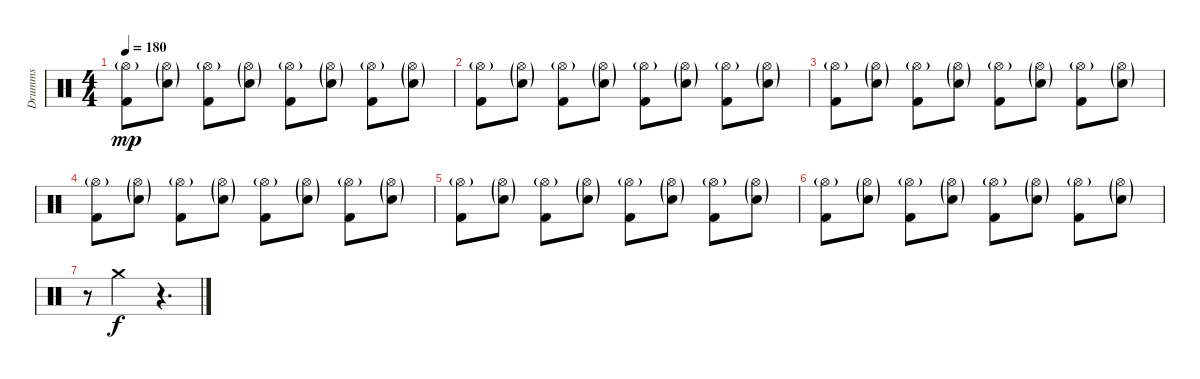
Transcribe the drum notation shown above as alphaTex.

\track ("Drumms" "Drumms") {instrument percussion}
\staff {score}
\articulation defaults
\ts (4 4)
\tempo 180
\clef neutral
\ks c
("Hi-Hat (open)"{g} "Kick (hit) 2").8{dy mp} ("Hi-Hat (open)"{g} "Snare (hit) 2"{g}).8 ("Hi-Hat (open)"{g} "Kick (hit) 2").8 ("Hi-Hat (open)"{g} "Snare (hit) 2"{g}).8 ("Hi-Hat (open)"{g} "Kick (hit) 2").8 ("Hi-Hat (open)"{g} "Snare (hit) 2"{g}).8 ("Hi-Hat (open)"{g} "Kick (hit) 2").8 ("Hi-Hat (open)"{g} "Snare (hit) 2"{g}).8 |
("Hi-Hat (open)"{g} "Kick (hit) 2").8 ("Hi-Hat (open)"{g} "Snare (hit) 2"{g}).8 ("Hi-Hat (open)"{g} "Kick (hit) 2").8 ("Hi-Hat (open)"{g} "Snare (hit) 2"{g}).8 ("Hi-Hat (open)"{g} "Kick (hit) 2").8 ("Hi-Hat (open)"{g} "Snare (hit) 2"{g}).8 ("Hi-Hat (open)"{g} "Kick (hit) 2").8 ("Hi-Hat (open)"{g} "Snare (hit) 2"{g}).8 |
("Hi-Hat (open)"{g} "Kick (hit) 2").8 ("Hi-Hat (open)"{g} "Snare (hit) 2"{g}).8 ("Hi-Hat (open)"{g} "Kick (hit) 2").8 ("Hi-Hat (open)"{g} "Snare (hit) 2"{g}).8 ("Hi-Hat (open)"{g} "Kick (hit) 2").8 ("Hi-Hat (open)"{g} "Snare (hit) 2"{g}).8 ("Hi-Hat (open)"{g} "Kick (hit) 2").8 ("Hi-Hat (open)"{g} "Snare (hit) 2"{g}).8 |
("Hi-Hat (open)"{g} "Kick (hit) 2").8 ("Hi-Hat (open)"{g} "Snare (hit) 2"{g}).8 ("Hi-Hat (open)"{g} "Kick (hit) 2").8 ("Hi-Hat (open)"{g} "Snare (hit) 2"{g}).8 ("Hi-Hat (open)"{g} "Kick (hit) 2").8 ("Hi-Hat (open)"{g} "Snare (hit) 2"{g}).8 ("Hi-Hat (open)"{g} "Kick (hit) 2").8 ("Hi-Hat (open)"{g} "Snare (hit) 2"{g}).8 |
("Hi-Hat (open)"{g} "Kick (hit) 2").8 ("Hi-Hat (open)"{g} "Snare (hit) 2"{g}).8 ("Hi-Hat (open)"{g} "Kick (hit) 2").8 ("Hi-Hat (open)"{g} "Snare (hit) 2"{g}).8 ("Hi-Hat (open)"{g} "Kick (hit) 2").8 ("Hi-Hat (open)"{g} "Snare (hit) 2"{g}).8 ("Hi-Hat (open)"{g} "Kick (hit) 2").8 ("Hi-Hat (open)"{g} "Snare (hit) 2"{g}).8 |
("Hi-Hat (open)"{g} "Kick (hit) 2").8 ("Hi-Hat (open)"{g} "Snare (hit) 2"{g}).8 ("Hi-Hat (open)"{g} "Kick (hit) 2").8 ("Hi-Hat (open)"{g} "Snare (hit) 2"{g}).8 ("Hi-Hat (open)"{g} "Kick (hit) 2").8 ("Hi-Hat (open)"{g} "Snare (hit) 2"{g}).8 ("Hi-Hat (open)"{g} "Kick (hit) 2").8 ("Hi-Hat (open)"{g} "Snare (hit) 2"{g}).8 |
r.8 "Crash medium (hit)".2{dy f} r.4{d}
